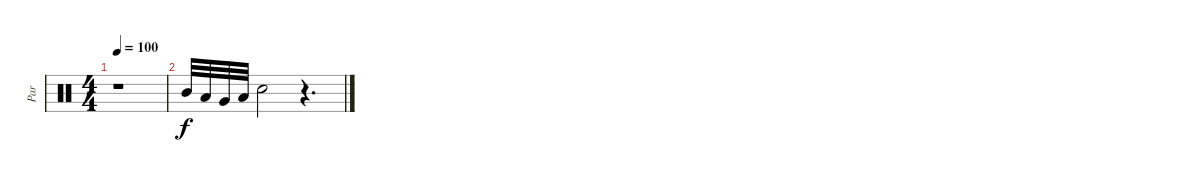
\track ("Par" "Par") {instrument percussion}
\staff {score}
\articulation defaults
\ts (4 4)
\tempo 100
\clef neutral
\ks c
r.1{dy f} |
"Mid Tom (hit)".32 "Low Tom (hit)".32 "Very Low Tom (hit)".32 "Low Floor Tom (hit)".32 "Snare (hit)".2 r.4{d}
